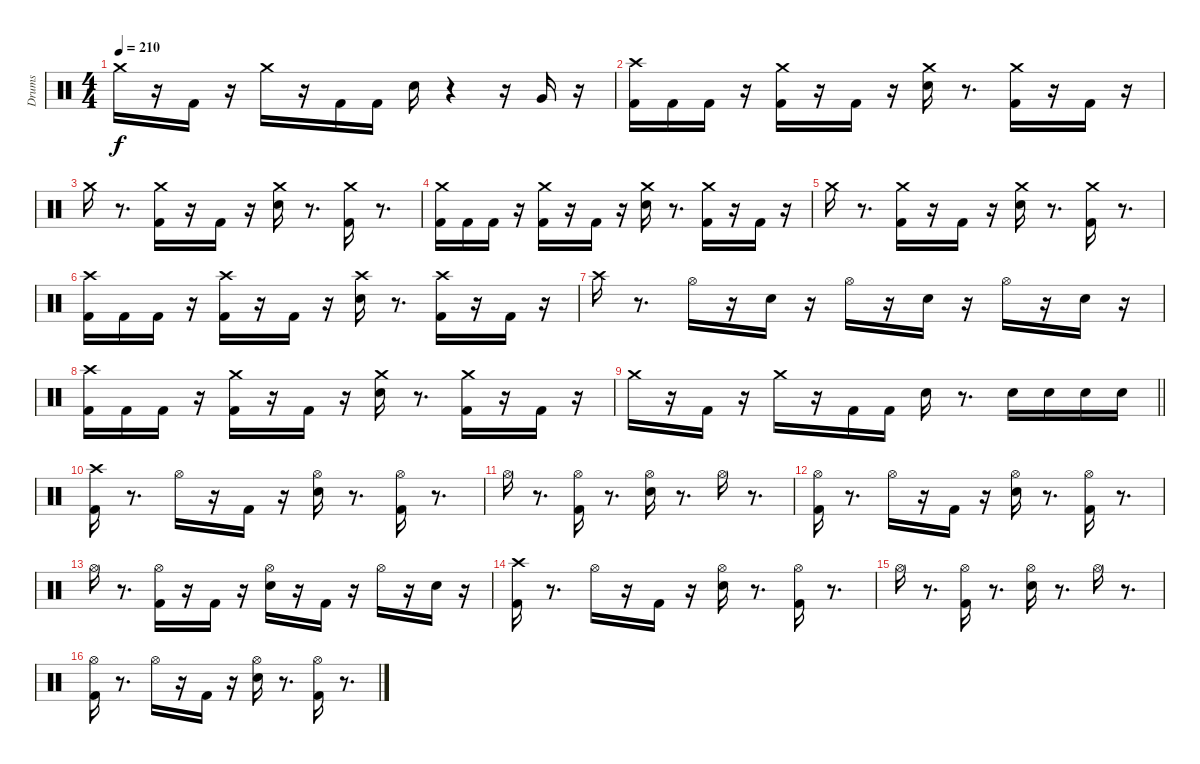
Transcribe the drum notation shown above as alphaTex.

\track ("Drums" "Drums") {instrument percussion}
\staff {score}
\articulation defaults
\ts (4 4)
\tempo 210
\clef neutral
\ks c "Crash medium (hit)".16{dy f}
r.16 "Kick (hit) 2".16 r.16 "Crash medium (hit)".16 r.16 "Kick (hit) 2".16 "Kick (hit) 2".16 "Snare (hit) 2".16 r.4 r.16 "Very Low Tom (hit)".16 r.16 |
("Kick (hit) 2" "Crash high (hit)").16 "Kick (hit) 2".16 "Kick (hit) 2".16 r.16 ("Kick (hit) 2" "Crash medium (hit)").16 r.16 "Kick (hit) 2".16 r.16 ("Snare (hit) 2" "Crash medium (hit)").16 r.8{d} ("Kick (hit) 2" "Crash medium (hit)").16 r.16 "Kick (hit) 2".16 r.16 |
"Crash medium (hit)".16 r.8{d} ("Kick (hit) 2" "Crash medium (hit)").16 r.16 "Kick (hit) 2".16 r.16 ("Snare (hit) 2" "Crash medium (hit)").16 r.8{d} ("Kick (hit) 2" "Crash medium (hit)").16 r.8{d} |
("Kick (hit) 2" "Crash medium (hit)").16 "Kick (hit) 2".16 "Kick (hit) 2".16 r.16 ("Kick (hit) 2" "Crash medium (hit)").16 r.16 "Kick (hit) 2".16 r.16 ("Snare (hit) 2" "Crash medium (hit)").16 r.8{d} ("Kick (hit) 2" "Crash medium (hit)").16 r.16 "Kick (hit) 2".16 r.16 |
"Crash medium (hit)".16 r.8{d} ("Kick (hit) 2" "Crash medium (hit)").16 r.16 "Kick (hit) 2".16 r.16 ("Snare (hit) 2" "Crash medium (hit)").16 r.8{d} ("Kick (hit) 2" "Crash medium (hit)").16 r.8{d} |
("Kick (hit) 2" "Crash high (hit)").16 "Kick (hit) 2".16 "Kick (hit) 2".16 r.16 ("Kick (hit) 2" "Crash high (hit)").16 r.16 "Kick (hit) 2".16 r.16 ("Snare (hit) 2" "Crash high (hit)").16 r.8{d} ("Kick (hit) 2" "Crash high (hit)").16 r.16 "Kick (hit) 2".16 r.16 |
"Crash high (hit)".16 r.8{d} "Hi-Hat (open)".16 r.16 "Snare (hit) 2".16 r.16 "Hi-Hat (open)".16 r.16 "Snare (hit) 2".16 r.16 "Hi-Hat (open)".16 r.16 "Snare (hit) 2".16 r.16 |
("Kick (hit) 2" "Crash high (hit)").16 "Kick (hit) 2".16 "Kick (hit) 2".16 r.16 ("Kick (hit) 2" "Crash medium (hit)").16 r.16 "Kick (hit) 2".16 r.16 ("Snare (hit) 2" "Crash medium (hit)").16 r.8{d} ("Kick (hit) 2" "Crash medium (hit)").16 r.16 "Kick (hit) 2".16 r.16 |
\barLineRight lightlight "Crash medium (hit)".16
r.16 "Kick (hit) 2".16 r.16 "Crash medium (hit)".16 r.16 "Kick (hit) 2".16 "Kick (hit) 2".16 "Snare (hit) 2".16 r.8{d} "Snare (hit) 2".16 "Snare (hit) 2".16 "Snare (hit) 2".16 "Snare (hit) 2".16 |
\section ("" " ")
("Kick (hit) 2" "Crash high (hit)").16 r.8{d} "Hi-Hat (open)".16 r.16 "Kick (hit) 2".16 r.16 ("Snare (hit) 2" "Hi-Hat (open)").16 r.8{d} ("Kick (hit) 2" "Hi-Hat (open)").16 r.8{d} |
"Hi-Hat (open)".16 r.8{d} ("Kick (hit) 2" "Hi-Hat (open)").16 r.8{d} ("Snare (hit) 2" "Hi-Hat (open)").16 r.8{d} "Hi-Hat (open)".16 r.8{d} |
("Kick (hit) 2" "Hi-Hat (open)").16 r.8{d} "Hi-Hat (open)".16 r.16 "Kick (hit) 2".16 r.16 ("Snare (hit) 2" "Hi-Hat (open)").16 r.8{d} ("Kick (hit) 2" "Hi-Hat (open)").16 r.8{d} |
"Hi-Hat (open)".16 r.8{d} ("Kick (hit) 2" "Hi-Hat (open)").16 r.16 "Kick (hit) 2".16 r.16 ("Snare (hit) 2" "Hi-Hat (open)").16 r.16 "Kick (hit) 2".16 r.16 "Hi-Hat (open)".16 r.16 "Snare (hit) 2".16 r.16 |
("Kick (hit) 2" "Crash high (hit)").16 r.8{d} "Hi-Hat (open)".16 r.16 "Kick (hit) 2".16 r.16 ("Snare (hit) 2" "Hi-Hat (open)").16 r.8{d} ("Kick (hit) 2" "Hi-Hat (open)").16 r.8{d} |
"Hi-Hat (open)".16 r.8{d} ("Kick (hit) 2" "Hi-Hat (open)").16 r.8{d} ("Snare (hit) 2" "Hi-Hat (open)").16 r.8{d} "Hi-Hat (open)".16 r.8{d} |
("Kick (hit) 2" "Hi-Hat (open)").16 r.8{d} "Hi-Hat (open)".16 r.16 "Kick (hit) 2".16 r.16 ("Snare (hit) 2" "Hi-Hat (open)").16 r.8{d} ("Kick (hit) 2" "Hi-Hat (open)").16 r.8{d}
